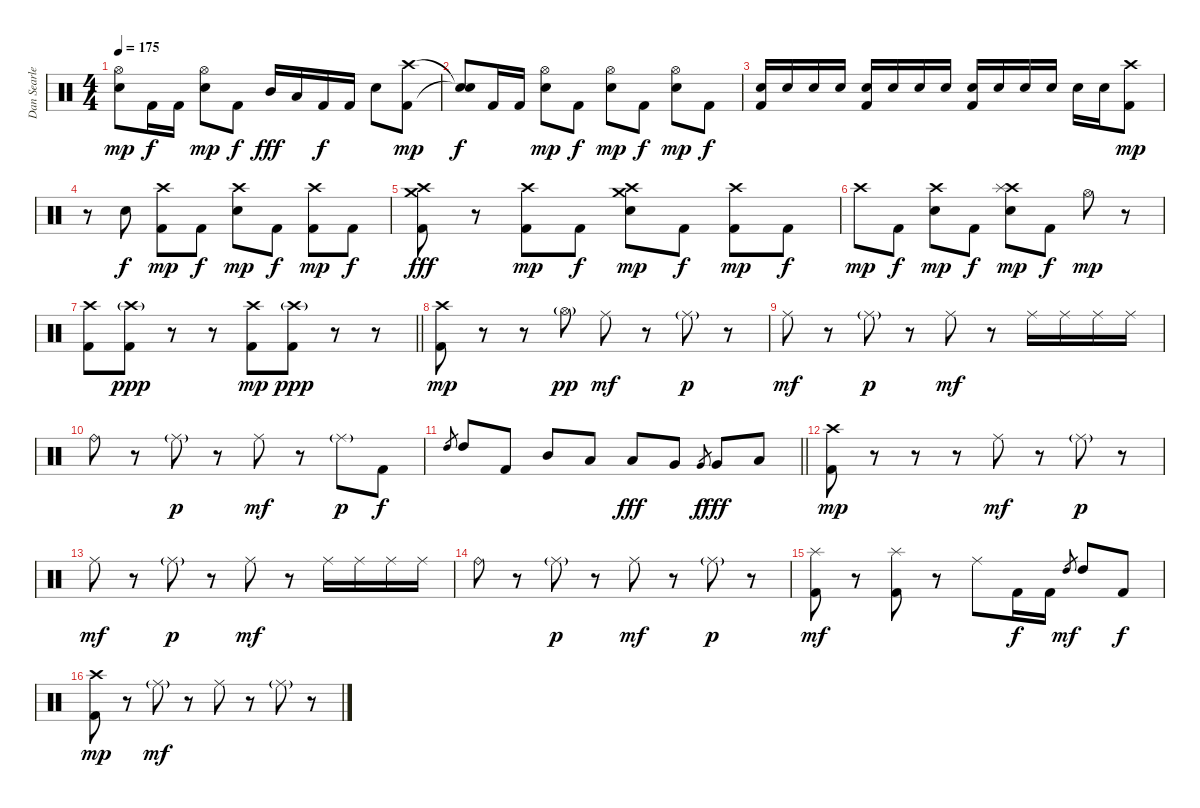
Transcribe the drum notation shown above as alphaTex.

\track ("Dan Searle" "Dan Searle") {instrument percussion}
\staff {score}
\articulation defaults
\ts (4 4)
\tempo 175
\clef neutral
\ks c
("Hi-Hat (open)" "Electric Snare (hit)").8{dy mp} "Kick (hit) 2".16{dy f} "Kick (hit) 2".16 ("Hi-Hat (open)" "Electric Snare (hit)").8{dy mp} "Kick (hit) 2".8{dy f} "Mid Tom (hit)".16{dy fff} "Low Tom (hit)".16 "Kick (hit) 2".16{dy f} "Kick (hit) 2".16 "Electric Snare (hit)".8 ("Crash high (hit)" "Kick (hit) 2").8{dy mp} |
("Snare (hit)"{t} "Snare (hit)"{t}).8{dy f} "Kick (hit) 2".16 "Kick (hit) 2".16 ("Hi-Hat (open)" "Electric Snare (hit)").8{dy mp} "Kick (hit) 2".8{dy f} ("Hi-Hat (open)" "Electric Snare (hit)").8{dy mp} "Kick (hit) 2".8{dy f} ("Hi-Hat (open)" "Electric Snare (hit)").8{dy mp} "Kick (hit) 2".8{dy f} |
("Electric Snare (hit)" "Kick (hit) 2").16 "Electric Snare (hit)".16 "Electric Snare (hit)".16 "Electric Snare (hit)".16 ("Electric Snare (hit)" "Kick (hit) 2").16 "Electric Snare (hit)".16 "Electric Snare (hit)".16 "Electric Snare (hit)".16 ("Electric Snare (hit)" "Kick (hit) 2").16 "Electric Snare (hit)".16 "Electric Snare (hit)".16 "Electric Snare (hit)".16 "Electric Snare (hit)".16 "Electric Snare (hit)".16 ("Crash high (hit)" "Kick (hit) 2").8{dy mp} |
r.8 "Electric Snare (hit)".8{dy f} ("Crash high (hit)" "Kick (hit) 2").8{dy mp} "Kick (hit) 2".8{dy f} ("Crash high (hit)" "Electric Snare (hit)").8{dy mp} "Kick (hit) 2".8{dy f} ("Crash high (hit)" "Kick (hit) 2").8{dy mp} "Kick (hit) 2".8{dy f} |
("Crash high (hit)" "Crash medium (hit)" "Kick (hit) 2").8{dy fff} r.8 ("Crash high (hit)" "Kick (hit) 2").8{dy mp} "Kick (hit) 2".8{dy f} ("Crash high (hit)" "Crash medium (hit)" "Electric Snare (hit)").8{dy mp} "Kick (hit) 2".8{dy f} ("Crash high (hit)" "Kick (hit) 2").8{dy mp} "Kick (hit) 2".8{dy f} |
"Crash high (hit)".8{dy mp} "Kick (hit) 2".8{dy f} ("Crash high (hit)" "Electric Snare (hit)").8{dy mp} "Kick (hit) 2".8{dy f} ("Crash high (hit)" "Splash (hit)" "Electric Snare (hit)").8{dy mp} "Kick (hit) 2".8{dy f} "Hi-Hat (open)".8{dy mp} r.8 |
\barLineRight lightlight
("Crash high (hit)" "Kick (hit) 2").8 ("Crash high (hit)"{g} "Kick (hit) 2").8{dy ppp} r.8 r.8 ("Crash high (hit)" "Kick (hit) 2").8{dy mp} ("Crash high (hit)"{g} "Kick (hit) 2").8{dy ppp} r.8 r.8 |
("Crash high (hit)" "Kick (hit) 2").8{dy mp} r.8 r.8 "Hi-Hat (open)"{g}.8{dy pp} "Ride (middle)".8{dy mf} r.8 "Ride (middle)"{g}.8{dy p} r.8 |
"Ride (middle)".8{dy mf} r.8 "Ride (middle)"{g}.8{dy p} r.8 "Ride (middle)".8{dy mf} r.8 "Ride (middle)".16 "Ride (middle)".16 "Ride (middle)".16 "Ride (middle)".16 |
"Ride (bell)".8 r.8 "Ride (middle)"{g}.8{dy p} r.8 "Ride (middle)".8{dy mf} r.8 "Ride (middle)"{g}.8{dy p} "Kick (hit) 2".8{dy f} |
\barLineRight lightlight "High Tom (hit)".8{gr} "High Tom (hit)".8 "Kick (hit) 2".8 "Mid Tom (hit)".8 "Low Tom (hit)".8 "Low Tom (hit)".8{dy fff} "Very Low Tom (hit)".8 "Very Low Tom (hit)".8{gr dy f} "Very Low Tom (hit)".8{dy fff} "Low Floor Tom (hit)".8
|
("Crash high (hit)" "Kick (hit) 2").8{dy mp} r.8 r.8 r.8 "Ride (middle)".8{dy mf} r.8 "Ride (middle)"{g}.8{dy p} r.8 |
"Ride (middle)".8{dy mf} r.8 "Ride (middle)"{g}.8{dy p} r.8 "Ride (middle)".8{dy mf} r.8 "Ride (middle)".16 "Ride (middle)".16 "Ride (middle)".16 "Ride (middle)".16 |
"Ride (bell)".8 r.8 "Ride (middle)"{g}.8{dy p} r.8 "Ride (middle)".8{dy mf} r.8 "Ride (middle)"{g}.8{dy p} r.8 |
("Splash (hit)" "Kick (hit) 2").8{dy mf} r.8 ("Splash (hit)" "Kick (hit) 2").8 r.8 "Ride (middle)".8 "Kick (hit) 2".16{dy f} "Kick (hit) 2".16 "High Tom (hit)".8{gr dy mf} "High Tom (hit)".8 "Kick (hit) 2".8{dy f} |
("Crash high (hit)" "Kick (hit) 2").8{dy mp} r.8 "Ride (middle)"{g}.8{dy mf} r.8 "Ride (middle)".8 r.8 "Ride (middle)"{g}.8 r.8
